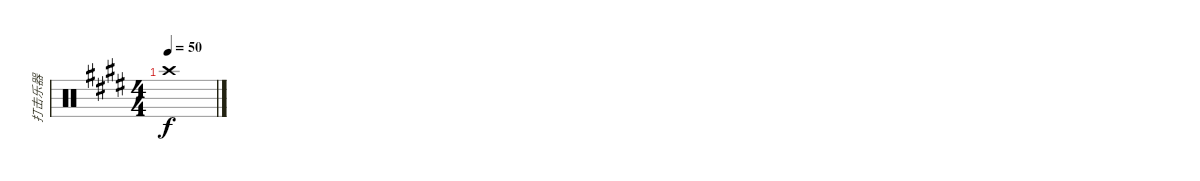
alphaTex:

\track ("打击乐器" "打击乐器") {instrument percussion}
\staff {score}
\articulation defaults
\ts (4 4)
\tempo 50
\clef neutral
\ks c#minor "Crash high (hit)".1{dy f}
